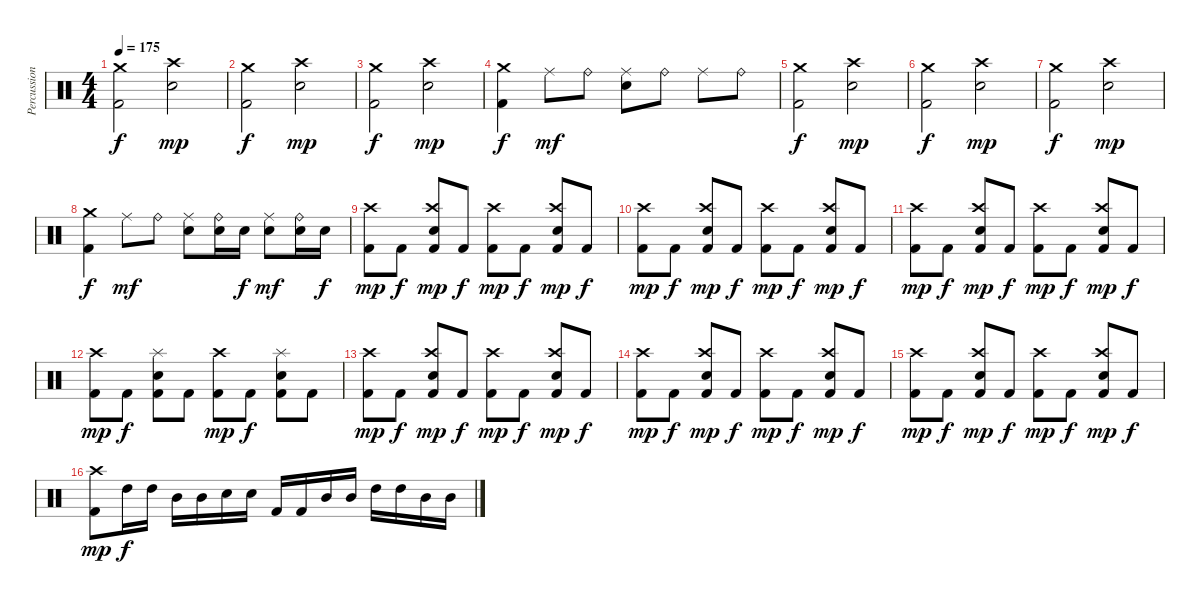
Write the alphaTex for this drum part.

\track ("Percussion" "Percussion") {instrument percussion}
\staff {score}
\articulation defaults
\ts (4 4)
\tempo 175
\clef neutral
\ks c
("Crash medium (hit)" "Kick (hit) 2").2{dy f} ("Crash high (hit)" "Electric Snare (hit)").2{dy mp} |
("Crash medium (hit)" "Kick (hit) 2").2{dy f} ("Crash high (hit)" "Electric Snare (hit)").2{dy mp} |
("Crash medium (hit)" "Kick (hit) 2").2{dy f} ("Crash high (hit)" "Electric Snare (hit)").2{dy mp} |
("Crash medium (hit)" "Kick (hit) 2").4{dy f} "Ride (middle)".8{dy mf} "Ride (bell)".8 ("Ride (middle)" "Electric Snare (hit)").8 "Ride (bell)".8 "Ride (middle)".8 "Ride (bell)".8 |
("Crash medium (hit)" "Kick (hit) 2").2{dy f} ("Crash high (hit)" "Electric Snare (hit)").2{dy mp} |
("Crash medium (hit)" "Kick (hit) 2").2{dy f} ("Crash high (hit)" "Electric Snare (hit)").2{dy mp} |
("Crash medium (hit)" "Kick (hit) 2").2{dy f} ("Crash high (hit)" "Electric Snare (hit)").2{dy mp} |
("Crash medium (hit)" "Kick (hit) 2").4{dy f} "Ride (middle)".8{dy mf} "Ride (bell)".8 ("Ride (middle)" "Electric Snare (hit)").8 ("Ride (bell)" "Electric Snare (hit)").16 "Electric Snare (hit)".16{dy f} ("Ride (middle)" "Electric Snare (hit)").8{dy mf} ("Ride (bell)" "Electric Snare (hit)").16 "Electric Snare (hit)".16{dy f} |
("Crash high (hit)" "Kick (hit) 2").8{dy mp} "Kick (hit) 2".8{dy f} ("Crash high (hit)" "Electric Snare (hit)" "Kick (hit) 2").8{dy mp} "Kick (hit) 2".8{dy f} ("Crash high (hit)" "Kick (hit) 2").8{dy mp} "Kick (hit) 2".8{dy f} ("Crash high (hit)" "Electric Snare (hit)" "Kick (hit) 2").8{dy mp} "Kick (hit) 2".8{dy f} |
("Crash high (hit)" "Kick (hit) 2").8{dy mp} "Kick (hit) 2".8{dy f} ("Crash high (hit)" "Electric Snare (hit)" "Kick (hit) 2").8{dy mp} "Kick (hit) 2".8{dy f} ("Crash high (hit)" "Kick (hit) 2").8{dy mp} "Kick (hit) 2".8{dy f} ("Crash high (hit)" "Electric Snare (hit)" "Kick (hit) 2").8{dy mp} "Kick (hit) 2".8{dy f} |
("Crash high (hit)" "Kick (hit) 2").8{dy mp} "Kick (hit) 2".8{dy f} ("Crash high (hit)" "Electric Snare (hit)" "Kick (hit) 2").8{dy mp} "Kick (hit) 2".8{dy f} ("Crash high (hit)" "Kick (hit) 2").8{dy mp} "Kick (hit) 2".8{dy f} ("Crash high (hit)" "Electric Snare (hit)" "Kick (hit) 2").8{dy mp} "Kick (hit) 2".8{dy f} |
("Crash high (hit)" "Kick (hit) 2").8{dy mp} "Kick (hit) 2".8{dy f} ("Splash (hit)" "Electric Snare (hit)" "Kick (hit) 2").8 "Kick (hit) 2".8 ("Crash high (hit)" "Kick (hit) 2").8{dy mp} "Kick (hit) 2".8{dy f} ("Splash (hit)" "Electric Snare (hit)" "Kick (hit) 2").8 "Kick (hit) 2".8 |
("Crash high (hit)" "Kick (hit) 2").8{dy mp} "Kick (hit) 2".8{dy f} ("Crash high (hit)" "Electric Snare (hit)" "Kick (hit) 2").8{dy mp} "Kick (hit) 2".8{dy f} ("Crash high (hit)" "Kick (hit) 2").8{dy mp} "Kick (hit) 2".8{dy f} ("Crash high (hit)" "Electric Snare (hit)" "Kick (hit) 2").8{dy mp} "Kick (hit) 2".8{dy f} |
("Crash high (hit)" "Kick (hit) 2").8{dy mp} "Kick (hit) 2".8{dy f} ("Crash high (hit)" "Electric Snare (hit)" "Kick (hit) 2").8{dy mp} "Kick (hit) 2".8{dy f} ("Crash high (hit)" "Kick (hit) 2").8{dy mp} "Kick (hit) 2".8{dy f} ("Crash high (hit)" "Electric Snare (hit)" "Kick (hit) 2").8{dy mp} "Kick (hit) 2".8{dy f} |
("Crash high (hit)" "Kick (hit) 2").8{dy mp} "Kick (hit) 2".8{dy f} ("Crash high (hit)" "Electric Snare (hit)" "Kick (hit) 2").8{dy mp} "Kick (hit) 2".8{dy f} ("Crash high (hit)" "Kick (hit) 2").8{dy mp} "Kick (hit) 2".8{dy f} ("Crash high (hit)" "Electric Snare (hit)" "Kick (hit) 2").8{dy mp} "Kick (hit) 2".8{dy f} |
("Crash high (hit)" "Kick (hit) 2").8{dy mp} "High Tom (hit)".16{dy f} "High Tom (hit)".16 "Mid Tom (hit)".16 "Mid Tom (hit)".16 "Electric Snare (hit)".16 "Electric Snare (hit)".16 "Kick (hit) 2".16 "Kick (hit) 2".16 "Mid Tom (hit)".16 "Mid Tom (hit)".16 "High Tom (hit)".16 "High Tom (hit)".16 "Mid Tom (hit)".16 "Mid Tom (hit)".16
